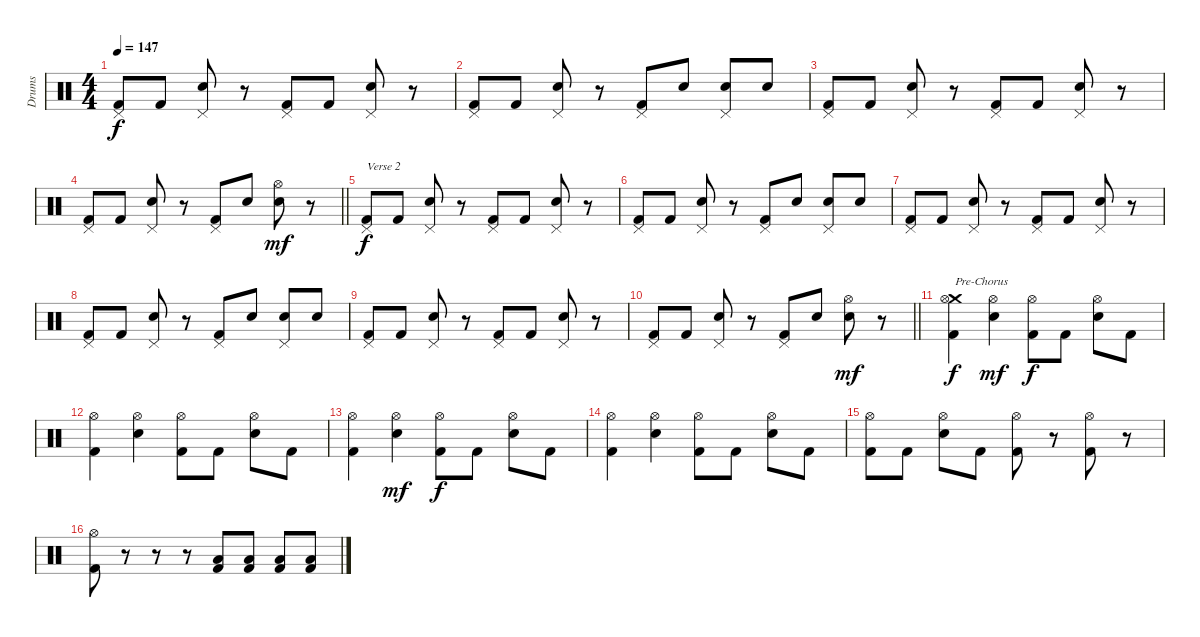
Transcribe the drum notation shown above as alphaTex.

\track ("Drums" "Drums") {instrument percussion}
\staff {score}
\articulation defaults
\ts (4 4)
\tempo 147
\clef neutral
\ks c
("Pedal Hi-Hat (hit)" "Kick (hit) 2").8{dy f} "Kick (hit) 2".8 ("Pedal Hi-Hat (hit)" "Electric Snare (hit)").8 r.8 ("Pedal Hi-Hat (hit)" "Kick (hit) 2").8 "Kick (hit) 2".8 ("Pedal Hi-Hat (hit)" "Electric Snare (hit)").8 r.8 |
("Pedal Hi-Hat (hit)" "Kick (hit) 2").8 "Kick (hit) 2".8 ("Pedal Hi-Hat (hit)" "Electric Snare (hit)").8 r.8 ("Pedal Hi-Hat (hit)" "Kick (hit) 2").8 "Electric Snare (hit)".8 ("Pedal Hi-Hat (hit)" "Electric Snare (hit)").8 "Electric Snare (hit)".8 |
("Pedal Hi-Hat (hit)" "Kick (hit) 2").8 "Kick (hit) 2".8 ("Pedal Hi-Hat (hit)" "Electric Snare (hit)").8 r.8 ("Pedal Hi-Hat (hit)" "Kick (hit) 2").8 "Kick (hit) 2".8 ("Pedal Hi-Hat (hit)" "Electric Snare (hit)").8 r.8 |
\barLineRight lightlight
("Pedal Hi-Hat (hit)" "Kick (hit) 2").8 "Kick (hit) 2".8 ("Pedal Hi-Hat (hit)" "Electric Snare (hit)").8 r.8 ("Pedal Hi-Hat (hit)" "Kick (hit) 2").8 "Electric Snare (hit)".8 ("Hi-Hat (open)" "Electric Snare (hit)").8{dy mf} r.8 |
("Pedal Hi-Hat (hit)" "Kick (hit) 2").8{txt "Verse 2" dy f} "Kick (hit) 2".8 ("Pedal Hi-Hat (hit)" "Electric Snare (hit)").8 r.8 ("Pedal Hi-Hat (hit)" "Kick (hit) 2").8 "Kick (hit) 2".8 ("Pedal Hi-Hat (hit)" "Electric Snare (hit)").8 r.8 |
("Pedal Hi-Hat (hit)" "Kick (hit) 2").8 "Kick (hit) 2".8 ("Pedal Hi-Hat (hit)" "Electric Snare (hit)").8 r.8 ("Pedal Hi-Hat (hit)" "Kick (hit) 2").8 "Electric Snare (hit)".8 ("Pedal Hi-Hat (hit)" "Electric Snare (hit)").8 "Electric Snare (hit)".8 |
("Pedal Hi-Hat (hit)" "Kick (hit) 2").8 "Kick (hit) 2".8 ("Pedal Hi-Hat (hit)" "Electric Snare (hit)").8 r.8 ("Pedal Hi-Hat (hit)" "Kick (hit) 2").8 "Kick (hit) 2".8 ("Pedal Hi-Hat (hit)" "Electric Snare (hit)").8 r.8 |
("Pedal Hi-Hat (hit)" "Kick (hit) 2").8 "Kick (hit) 2".8 ("Pedal Hi-Hat (hit)" "Electric Snare (hit)").8 r.8 ("Pedal Hi-Hat (hit)" "Kick (hit) 2").8 "Electric Snare (hit)".8 ("Pedal Hi-Hat (hit)" "Electric Snare (hit)").8 "Electric Snare (hit)".8 |
("Pedal Hi-Hat (hit)" "Kick (hit) 2").8 "Kick (hit) 2".8 ("Pedal Hi-Hat (hit)" "Electric Snare (hit)").8 r.8 ("Pedal Hi-Hat (hit)" "Kick (hit) 2").8 "Kick (hit) 2".8 ("Pedal Hi-Hat (hit)" "Electric Snare (hit)").8 r.8 |
\barLineRight lightlight
("Pedal Hi-Hat (hit)" "Kick (hit) 2").8 "Kick (hit) 2".8 ("Pedal Hi-Hat (hit)" "Electric Snare (hit)").8 r.8 ("Pedal Hi-Hat (hit)" "Kick (hit) 2").8 "Electric Snare (hit)".8 ("Hi-Hat (open)" "Electric Snare (hit)").8{dy mf} r.8 |
("Crash medium (hit)" "Hi-Hat (open)" "Kick (hit) 2").4{txt "Pre-Chorus" dy f} ("Hi-Hat (open)" "Electric Snare (hit)").4{dy mf} ("Hi-Hat (open)" "Kick (hit) 2").8{dy f} "Kick (hit) 2".8 ("Hi-Hat (open)" "Electric Snare (hit)").8 "Kick (hit) 2".8 |
("Hi-Hat (open)" "Kick (hit) 2").4 ("Hi-Hat (open)" "Electric Snare (hit)").4 ("Hi-Hat (open)" "Kick (hit) 2").8 "Kick (hit) 2".8 ("Hi-Hat (open)" "Electric Snare (hit)").8 "Kick (hit) 2".8 |
("Hi-Hat (open)" "Kick (hit) 2").4 ("Hi-Hat (open)" "Electric Snare (hit)").4{dy mf} ("Hi-Hat (open)" "Kick (hit) 2").8{dy f} "Kick (hit) 2".8 ("Hi-Hat (open)" "Electric Snare (hit)").8 "Kick (hit) 2".8 |
("Hi-Hat (open)" "Kick (hit) 2").4 ("Hi-Hat (open)" "Electric Snare (hit)").4 ("Hi-Hat (open)" "Kick (hit) 2").8 "Kick (hit) 2".8 ("Hi-Hat (open)" "Electric Snare (hit)").8 "Kick (hit) 2".8 |
("Hi-Hat (open)" "Kick (hit) 2").8 "Kick (hit) 2".8 ("Hi-Hat (open)" "Electric Snare (hit)").8 "Kick (hit) 2".8 ("Hi-Hat (open)" "Kick (hit) 2").8 r.8 ("Hi-Hat (open)" "Kick (hit) 2").8 r.8 |
("Hi-Hat (open)" "Kick (hit) 2").8 r.8 r.8 r.8 ("Low Floor Tom (hit)" "Kick (hit) 2").8 ("Low Floor Tom (hit)" "Kick (hit) 2").8 ("Low Floor Tom (hit)" "Kick (hit) 2").8 ("Low Floor Tom (hit)" "Kick (hit) 2").8
